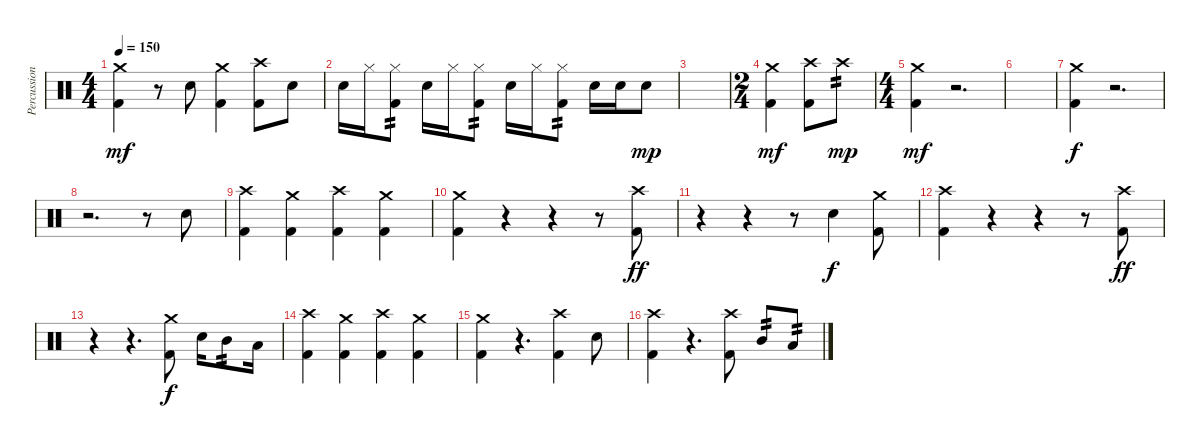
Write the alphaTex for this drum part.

\track ("Percussion" "Percussion") {instrument percussion}
\staff {score}
\articulation defaults
\ts (4 4)
\tempo 150
\clef neutral
\ks c
("Crash medium (hit)" "Kick (hit) 2").4{dy mf} r.8 "Snare (hit) 2".8 ("Crash medium (hit)" "Kick (hit) 2").4 ("Crash high (hit)" "Kick (hit) 2").8 "Snare (hit) 2".8 |
"Snare (hit) 2".16 "Hi-Hat (closed)".16 ("Kick (hit) 2" "Hi-Hat (closed)").8{tp 2} "Snare (hit) 2".16 "Hi-Hat (closed)".16 ("Kick (hit) 2" "Hi-Hat (closed)").8{tp 2} "Snare (hit) 2".16 "Hi-Hat (closed)".16 ("Kick (hit) 2" "Hi-Hat (closed)").8{tp 2} "Snare (hit) 2".16 "Snare (hit) 2".16 "Snare (hit) 2".8{dy mp} |
|
\ts (2 4)
("Crash medium (hit)" "Kick (hit) 2").4{dy mf} ("Crash high (hit)" "Kick (hit) 2").8 "Crash high (hit)".8{tp 2 dy mp} |
\ts (4 4)
("Crash medium (hit)" "Kick (hit) 2").4{dy mf} r.2{d} |
|
("Crash medium (hit)" "Kick (hit) 2").4{dy f} r.2{d} |
r.2{d} r.8 "Snare (hit) 2".8 |
("Crash high (hit)" "Kick (hit) 2").4 ("Crash medium (hit)" "Kick (hit) 2").4 ("Crash high (hit)" "Kick (hit) 2").4 ("Crash medium (hit)" "Kick (hit) 2").4 |
("Crash medium (hit)" "Kick (hit) 2").4 r.4 r.4 r.8 ("Crash high (hit)" "Kick (hit) 2").8{dy ff} |
r.4 r.4 r.8 "Snare (hit) 2".4{dy f} ("Crash medium (hit)" "Kick (hit) 2").8 |
("Crash high (hit)" "Kick (hit) 2").4 r.4 r.4 r.8 ("Crash high (hit)" "Kick (hit) 2").8{dy ff} |
r.4 r.4{d} ("Crash medium (hit)" "Kick (hit) 2").8{dy f} "Snare (hit) 2".16 "Mid Tom (hit)".8{tp 2} "Low Tom (hit)".16 |
("Crash high (hit)" "Kick (hit) 2").4 ("Crash medium (hit)" "Kick (hit) 2").4 ("Crash high (hit)" "Kick (hit) 2").4 ("Crash medium (hit)" "Kick (hit) 2").4 |
("Crash medium (hit)" "Kick (hit) 2").4 r.4{d} ("Crash high (hit)" "Kick (hit) 2").4 "Snare (hit) 2".8 |
("Crash high (hit)" "Kick (hit) 2").4 r.4{d} ("Crash high (hit)" "Kick (hit) 2").8 "Mid Tom (hit)".8{tp 2} "Low Tom (hit)".8{tp 2}
